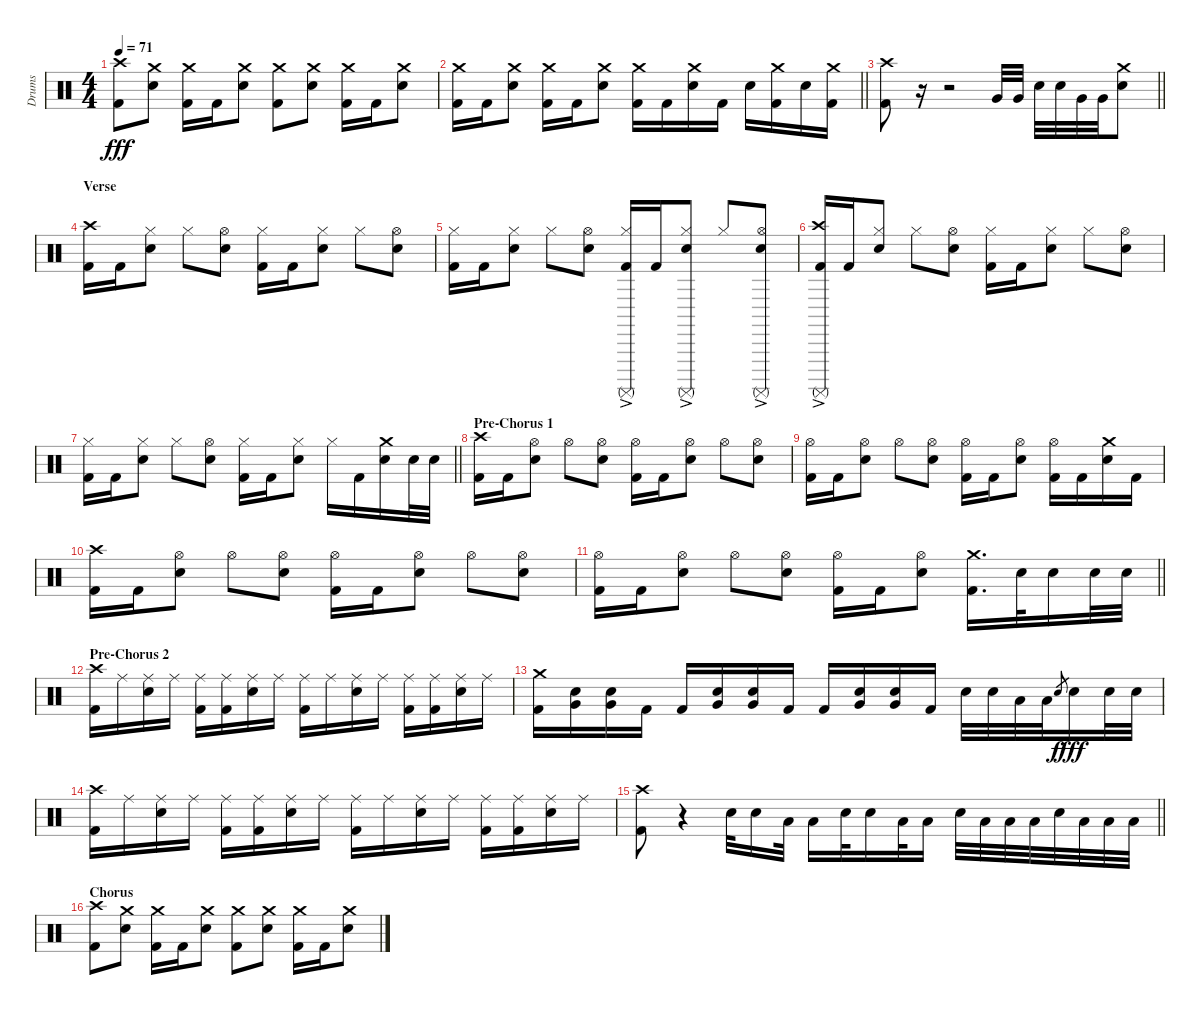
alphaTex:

\track ("Drums" "Drums") {instrument percussion}
\staff {score}
\articulation defaults
\ts (4 4)
\tempo 71
\clef neutral
\ks c
("Crash high (hit)" "Kick (hit) 2").8{dy fff} ("Crash medium (hit)" "Snare (hit) 2").8 ("Crash medium (hit)" "Kick (hit) 2").16 "Kick (hit) 2".16 ("Crash medium (hit)" "Snare (hit) 2").8 ("Crash medium (hit)" "Kick (hit) 2").8 ("Crash medium (hit)" "Snare (hit) 2").8 ("Crash medium (hit)" "Kick (hit) 2").16 "Kick (hit) 2".16 ("Crash medium (hit)" "Snare (hit) 2").8 |
\barLineRight lightlight
("Crash medium (hit)" "Kick (hit) 2").16 "Kick (hit) 2".16 ("Crash medium (hit)" "Snare (hit) 2").8 ("Crash medium (hit)" "Kick (hit) 2").16 "Kick (hit) 2".16 ("Crash medium (hit)" "Snare (hit) 2").8 ("Crash medium (hit)" "Kick (hit) 2").16 "Kick (hit) 2".16 ("Crash medium (hit)" "Snare (hit) 2").16 "Kick (hit) 2".16 "Snare (hit) 2".16 ("Crash medium (hit)" "Kick (hit) 2").16 "Snare (hit) 2".16 ("Crash medium (hit)" "Kick (hit) 2").16 |
\barLineRight lightlight
("Crash high (hit)" "Kick (hit) 2").8 r.16{volume 0} r.2 "Very Low Tom (hit)".32{volume 16} "Very Low Tom (hit)".32 "Snare (hit) 2".32 "Snare (hit) 2".32 "Very Low Tom (hit)".32 "Very Low Tom (hit)".32 ("Crash medium (hit)" "Snare (hit) 2").8 |
\section ("" "Verse")
("Crash high (hit)" "Kick (hit) 2").16 "Kick (hit) 2".16 ("Hi-Hat (closed)" "Snare (hit) 2").8 "Hi-Hat (closed)".8 ("Hi-Hat (open)" "Snare (hit) 2").8 ("Hi-Hat (closed)" "Kick (hit) 2").16 "Kick (hit) 2".16 ("Hi-Hat (closed)" "Snare (hit) 2").8 "Hi-Hat (closed)".8 ("Hi-Hat (open)" "Snare (hit) 2").8 |
("Hi-Hat (closed)" "Kick (hit) 2").16 "Kick (hit) 2".16 ("Hi-Hat (closed)" "Snare (hit) 2").8 "Hi-Hat (closed)".8 ("Hi-Hat (open)" "Snare (hit) 2").8 ("Hi-Hat (closed)" "Surdo (mute)"{ac} "Kick (hit) 2").16 "Kick (hit) 2".16 ("Hi-Hat (closed)" "Snare (hit) 2" "Surdo (mute)"{ac}).8 "Hi-Hat (closed)".8 ("Hi-Hat (open)" "Snare (hit) 2" "Surdo (mute)"{ac}).8 |
("Crash high (hit)" "Surdo (mute)"{ac} "Kick (hit) 2").16 "Kick (hit) 2".16 ("Hi-Hat (closed)" "Snare (hit) 2").8 "Hi-Hat (closed)".8 ("Hi-Hat (open)" "Snare (hit) 2").8 ("Hi-Hat (closed)" "Kick (hit) 2").16 "Kick (hit) 2".16 ("Hi-Hat (closed)" "Snare (hit) 2").8 "Hi-Hat (closed)".8 ("Hi-Hat (open)" "Snare (hit) 2").8 |
\barLineRight lightlight
("Hi-Hat (closed)" "Kick (hit) 2").16 "Kick (hit) 2".16 ("Hi-Hat (closed)" "Snare (hit) 2").8 "Hi-Hat (closed)".8 ("Hi-Hat (open)" "Snare (hit) 2").8 ("Hi-Hat (closed)" "Kick (hit) 2").16 "Kick (hit) 2".16 ("Hi-Hat (closed)" "Snare (hit) 2").8 "Hi-Hat (closed)".16 "Kick (hit) 2".16 ("Crash medium (hit)" "Snare (hit) 2").16 "Snare (hit) 2".32 "Snare (hit) 2".32 |
\section ("" "Pre-Chorus 1")
("Crash high (hit)" "Kick (hit) 2").16 "Kick (hit) 2".16 ("Hi-Hat (open)" "Snare (hit) 2").8 "Hi-Hat (open)".8 ("Hi-Hat (open)" "Snare (hit) 2").8 ("Hi-Hat (open)" "Kick (hit) 2").16 "Kick (hit) 2".16 ("Hi-Hat (open)" "Snare (hit) 2").8 "Hi-Hat (open)".8 ("Hi-Hat (open)" "Snare (hit) 2").8 |
("Hi-Hat (open)" "Kick (hit) 2").16 "Kick (hit) 2".16 ("Hi-Hat (open)" "Snare (hit) 2").8 "Hi-Hat (open)".8 ("Hi-Hat (open)" "Snare (hit) 2").8 ("Hi-Hat (open)" "Kick (hit) 2").16 "Kick (hit) 2".16 ("Hi-Hat (open)" "Snare (hit) 2").8 ("Hi-Hat (open)" "Kick (hit) 2").16 "Kick (hit) 2".16 ("Crash medium (hit)" "Snare (hit) 2").16 "Kick (hit) 2".16 |
("Crash high (hit)" "Kick (hit) 2").16 "Kick (hit) 2".16 ("Hi-Hat (open)" "Snare (hit) 2").8 "Hi-Hat (open)".8 ("Hi-Hat (open)" "Snare (hit) 2").8 ("Hi-Hat (open)" "Kick (hit) 2").16 "Kick (hit) 2".16 ("Hi-Hat (open)" "Snare (hit) 2").8 "Hi-Hat (open)".8 ("Hi-Hat (open)" "Snare (hit) 2").8 |
\barLineRight lightlight
("Hi-Hat (open)" "Kick (hit) 2").16 "Kick (hit) 2".16 ("Hi-Hat (open)" "Snare (hit) 2").8 "Hi-Hat (open)".8 ("Hi-Hat (open)" "Snare (hit) 2").8 ("Hi-Hat (open)" "Kick (hit) 2").16 "Kick (hit) 2".16 ("Hi-Hat (open)" "Snare (hit) 2").8 ("Crash medium (hit)" "Kick (hit) 2").16{d} "Snare (hit) 2".32 "Snare (hit) 2".16 "Snare (hit) 2".32 "Snare (hit) 2".32 |
\section ("" "Pre-Chorus 2")
("Crash high (hit)" "Kick (hit) 2").16 "Ride (middle)".16 ("Ride (middle)" "Snare (hit) 2").16 "Ride (middle)".16 ("Ride (middle)" "Kick (hit) 2").16 ("Ride (middle)" "Kick (hit) 2").16 ("Ride (middle)" "Snare (hit) 2").16 "Ride (middle)".16 ("Ride (middle)" "Kick (hit) 2").16 "Ride (middle)".16 ("Ride (middle)" "Snare (hit) 2").16 "Ride (middle)".16 ("Ride (middle)" "Kick (hit) 2").16 ("Ride (middle)" "Kick (hit) 2").16 ("Ride (middle)" "Snare (hit) 2").16 "Ride (middle)".16 |
("Crash medium (hit)" "Kick (hit) 2").16 ("Snare (hit) 2" "Very Low Tom (hit)").16 ("Snare (hit) 2" "Very Low Tom (hit)").16 "Kick (hit) 2".16 "Kick (hit) 2".16 ("Snare (hit) 2" "Very Low Tom (hit)").16 ("Snare (hit) 2" "Very Low Tom (hit)").16 "Kick (hit) 2".16 "Kick (hit) 2".16 ("Snare (hit) 2" "Very Low Tom (hit)").16 ("Snare (hit) 2" "Very Low Tom (hit)").16 "Kick (hit) 2".16 "Snare (hit) 2".32 "Snare (hit) 2".32 "Low Tom (hit)".32 "Low Tom (hit)".32 "Snare (hit) 2".8{gr dy f} "Snare (hit) 2".16{dy fff} "Snare (hit) 2".32 "Snare (hit) 2".32 |
("Crash high (hit)" "Kick (hit) 2").16 "Ride (middle)".16 ("Ride (middle)" "Snare (hit) 2").16 "Ride (middle)".16 ("Ride (middle)" "Kick (hit) 2").16 ("Ride (middle)" "Kick (hit) 2").16 ("Ride (middle)" "Snare (hit) 2").16 "Ride (middle)".16 ("Ride (middle)" "Kick (hit) 2").16 "Ride (middle)".16 ("Ride (middle)" "Snare (hit) 2").16 "Ride (middle)".16 ("Ride (middle)" "Kick (hit) 2").16 ("Ride (middle)" "Kick (hit) 2").16 ("Ride (middle)" "Snare (hit) 2").16 "Ride (middle)".16 |
\barLineRight lightlight
("Crash high (hit)" "Kick (hit) 2").8 r.4{volume 0} "Snare (hit) 2".32{volume 14} "Snare (hit) 2".16 "Low Tom (hit)".32 "Low Tom (hit)".16 "Snare (hit) 2".32 "Snare (hit) 2".16 "Low Tom (hit)".32 "Low Tom (hit)".16 "Snare (hit) 2".32 "Low Tom (hit)".32 "Low Tom (hit)".32 "Low Tom (hit)".32 "Snare (hit) 2".32 "Low Tom (hit)".32 "Low Tom (hit)".32 "Low Tom (hit)".32 |
\section ("" "Chorus")
("Crash high (hit)" "Kick (hit) 2").8 ("Crash medium (hit)" "Snare (hit) 2").8 ("Crash medium (hit)" "Kick (hit) 2").16 "Kick (hit) 2".16 ("Crash medium (hit)" "Snare (hit) 2").8 ("Crash medium (hit)" "Kick (hit) 2").8 ("Crash medium (hit)" "Snare (hit) 2").8 ("Crash medium (hit)" "Kick (hit) 2").16 "Kick (hit) 2".16 ("Crash medium (hit)" "Snare (hit) 2").8
